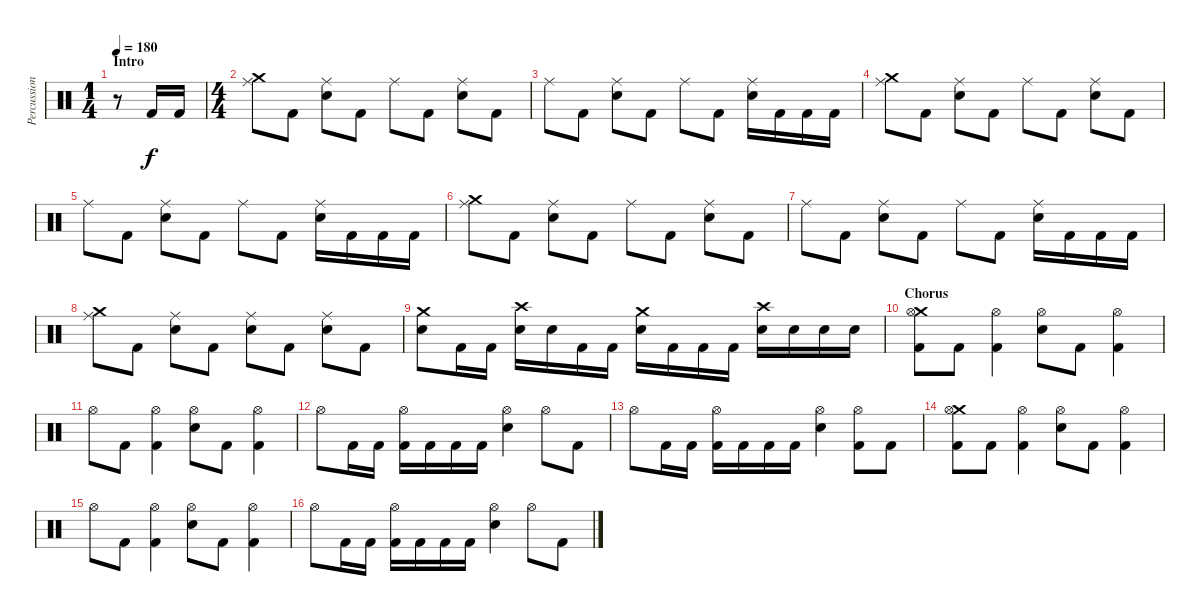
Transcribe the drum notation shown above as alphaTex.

\track ("Percussion" "Percussion") {instrument percussion}
\staff {score}
\articulation defaults
\ts (1 4)
\section ("" "Intro")
\tempo 180
\clef neutral
\ks c
r.8{dy f} "Kick (hit) 2".16 "Kick (hit) 2".16 |
\ts (4 4)
("Crash medium (hit)" "Ride (middle)").8 "Kick (hit) 2".8 ("Ride (middle)" "Electric Snare (hit)").8 "Kick (hit) 2".8 "Ride (middle)".8 "Kick (hit) 2".8 ("Ride (middle)" "Electric Snare (hit)").8 "Kick (hit) 2".8 |
"Ride (middle)".8 "Kick (hit) 2".8 ("Ride (middle)" "Electric Snare (hit)").8 "Kick (hit) 2".8 "Ride (middle)".8 "Kick (hit) 2".8 ("Ride (middle)" "Electric Snare (hit)").16 "Kick (hit) 2".16 "Kick (hit) 2".16 "Kick (hit) 2".16 |
("Crash medium (hit)" "Ride (middle)").8 "Kick (hit) 2".8 ("Ride (middle)" "Electric Snare (hit)").8 "Kick (hit) 2".8 "Ride (middle)".8 "Kick (hit) 2".8 ("Ride (middle)" "Electric Snare (hit)").8 "Kick (hit) 2".8 |
"Ride (middle)".8 "Kick (hit) 2".8 ("Ride (middle)" "Electric Snare (hit)").8 "Kick (hit) 2".8 "Ride (middle)".8 "Kick (hit) 2".8 ("Ride (middle)" "Electric Snare (hit)").16 "Kick (hit) 2".16 "Kick (hit) 2".16 "Kick (hit) 2".16 |
("Crash medium (hit)" "Ride (middle)").8 "Kick (hit) 2".8 ("Ride (middle)" "Electric Snare (hit)").8 "Kick (hit) 2".8 "Ride (middle)".8 "Kick (hit) 2".8 ("Ride (middle)" "Electric Snare (hit)").8 "Kick (hit) 2".8 |
"Ride (middle)".8 "Kick (hit) 2".8 ("Ride (middle)" "Electric Snare (hit)").8 "Kick (hit) 2".8 "Ride (middle)".8 "Kick (hit) 2".8 ("Ride (middle)" "Electric Snare (hit)").16 "Kick (hit) 2".16 "Kick (hit) 2".16 "Kick (hit) 2".16 |
("Crash medium (hit)" "Ride (middle)").8 "Kick (hit) 2".8 ("Ride (middle)" "Electric Snare (hit)").8 "Kick (hit) 2".8 ("Ride (middle)" "Electric Snare (hit)").8 "Kick (hit) 2".8 ("Ride (middle)" "Electric Snare (hit)").8 "Kick (hit) 2".8 |
("Crash medium (hit)" "Electric Snare (hit)").8 "Kick (hit) 2".16 "Kick (hit) 2".16 ("Crash high (hit)" "Electric Snare (hit)").16 "Electric Snare (hit)".16 "Kick (hit) 2".16 "Kick (hit) 2".16 ("Crash medium (hit)" "Electric Snare (hit)").16 "Kick (hit) 2".16 "Kick (hit) 2".16 "Kick (hit) 2".16 ("Crash high (hit)" "Electric Snare (hit)").16 "Electric Snare (hit)".16 "Electric Snare (hit)".16 "Electric Snare (hit)".16 |
\section ("" "Chorus")
("Crash medium (hit)" "Hi-Hat (open)" "Kick (hit) 2").8 "Kick (hit) 2".8 ("Hi-Hat (open)" "Kick (hit) 2").4 ("Hi-Hat (open)" "Electric Snare (hit)").8 "Kick (hit) 2".8 ("Hi-Hat (open)" "Kick (hit) 2").4 |
"Hi-Hat (open)".8 "Kick (hit) 2".8 ("Hi-Hat (open)" "Kick (hit) 2").4 ("Hi-Hat (open)" "Electric Snare (hit)").8 "Kick (hit) 2".8 ("Hi-Hat (open)" "Kick (hit) 2").4 |
"Hi-Hat (open)".8 "Kick (hit) 2".16 "Kick (hit) 2".16 ("Hi-Hat (open)" "Kick (hit) 2").16 "Kick (hit) 2".16 "Kick (hit) 2".16 "Kick (hit) 2".16 ("Hi-Hat (open)" "Electric Snare (hit)").4 "Hi-Hat (open)".8 "Kick (hit) 2".8 |
"Hi-Hat (open)".8 "Kick (hit) 2".16 "Kick (hit) 2".16 ("Hi-Hat (open)" "Kick (hit) 2").16 "Kick (hit) 2".16 "Kick (hit) 2".16 "Kick (hit) 2".16 ("Hi-Hat (open)" "Electric Snare (hit)").4 ("Hi-Hat (open)" "Kick (hit) 2").8 "Kick (hit) 2".8 |
("Crash medium (hit)" "Hi-Hat (open)" "Kick (hit) 2").8 "Kick (hit) 2".8 ("Hi-Hat (open)" "Kick (hit) 2").4 ("Hi-Hat (open)" "Electric Snare (hit)").8 "Kick (hit) 2".8 ("Hi-Hat (open)" "Kick (hit) 2").4 |
"Hi-Hat (open)".8 "Kick (hit) 2".8 ("Hi-Hat (open)" "Kick (hit) 2").4 ("Hi-Hat (open)" "Electric Snare (hit)").8 "Kick (hit) 2".8 ("Hi-Hat (open)" "Kick (hit) 2").4 |
"Hi-Hat (open)".8 "Kick (hit) 2".16 "Kick (hit) 2".16 ("Hi-Hat (open)" "Kick (hit) 2").16 "Kick (hit) 2".16 "Kick (hit) 2".16 "Kick (hit) 2".16 ("Hi-Hat (open)" "Electric Snare (hit)").4 "Hi-Hat (open)".8 "Kick (hit) 2".8
